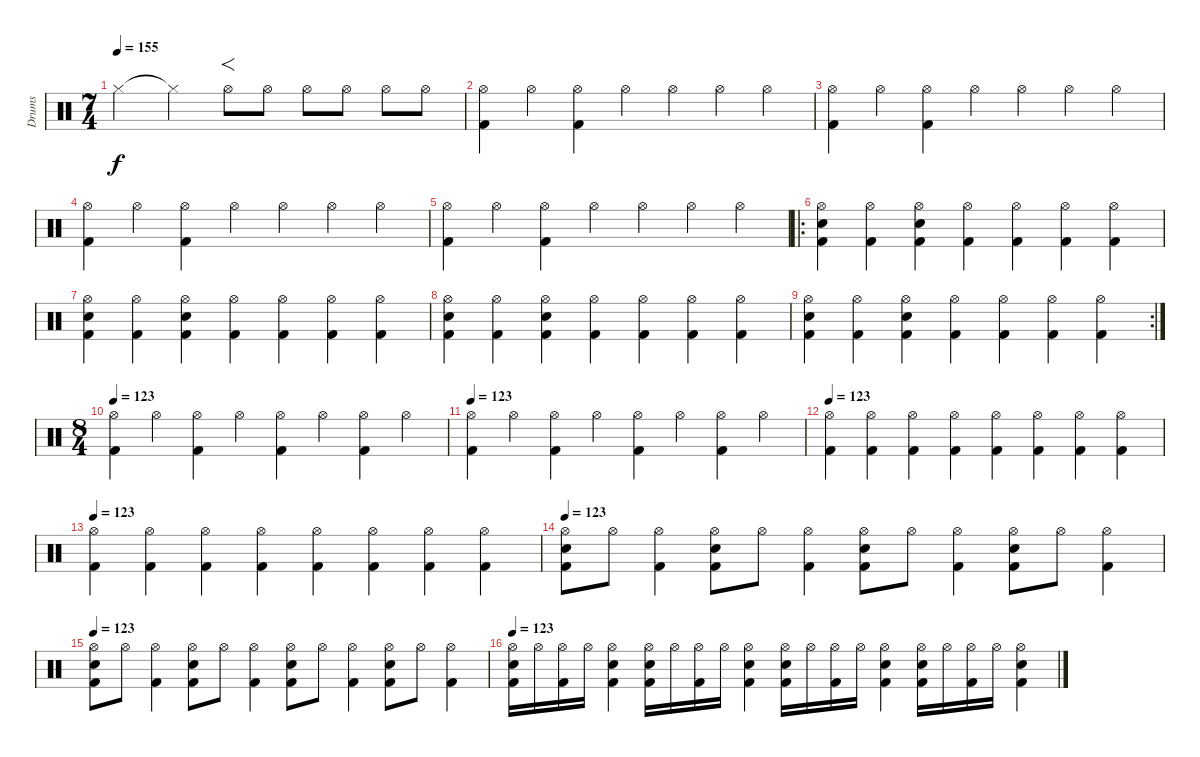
\track ("Drums" "Drums") {instrument percussion}
\staff {score}
\articulation defaults
\ts (7 4)
\tempo 155
\clef neutral
\ks c "Hi-Hat (closed)"{t}.2{dy f} "Hi-Hat (closed)"{t}.2 "Hi-Hat (open)".8{f} "Hi-Hat (open)".8 "Hi-Hat (open)".8 "Hi-Hat (open)".8 "Hi-Hat (open)".8 "Hi-Hat (open)".8
|
("Hi-Hat (open)" "Kick (hit) 2").4 "Hi-Hat (open)".4 ("Hi-Hat (open)" "Kick (hit) 2").4 "Hi-Hat (open)".4 "Hi-Hat (open)".4 "Hi-Hat (open)".4 "Hi-Hat (open)".4 |
("Hi-Hat (open)" "Kick (hit) 2").4 "Hi-Hat (open)".4 ("Hi-Hat (open)" "Kick (hit) 2").4 "Hi-Hat (open)".4 "Hi-Hat (open)".4 "Hi-Hat (open)".4 "Hi-Hat (open)".4 |
("Hi-Hat (open)" "Kick (hit) 2").4 "Hi-Hat (open)".4 ("Hi-Hat (open)" "Kick (hit) 2").4 "Hi-Hat (open)".4 "Hi-Hat (open)".4 "Hi-Hat (open)".4 "Hi-Hat (open)".4 |
("Hi-Hat (open)" "Kick (hit) 2").4 "Hi-Hat (open)".4 ("Hi-Hat (open)" "Kick (hit) 2").4 "Hi-Hat (open)".4 "Hi-Hat (open)".4 "Hi-Hat (open)".4 "Hi-Hat (open)".4 |
\ro
("Hi-Hat (open)" "Electric Snare (hit)" "Kick (hit) 2").4 ("Hi-Hat (open)" "Kick (hit) 2").4 ("Hi-Hat (open)" "Electric Snare (hit)" "Kick (hit) 2").4 ("Hi-Hat (open)" "Kick (hit) 2").4 ("Hi-Hat (open)" "Kick (hit) 2").4 ("Hi-Hat (open)" "Kick (hit) 2").4 ("Hi-Hat (open)" "Kick (hit) 2").4 |
("Hi-Hat (open)" "Electric Snare (hit)" "Kick (hit) 2").4 ("Hi-Hat (open)" "Kick (hit) 2").4 ("Hi-Hat (open)" "Electric Snare (hit)" "Kick (hit) 2").4 ("Hi-Hat (open)" "Kick (hit) 2").4 ("Hi-Hat (open)" "Kick (hit) 2").4 ("Hi-Hat (open)" "Kick (hit) 2").4 ("Hi-Hat (open)" "Kick (hit) 2").4 |
("Hi-Hat (open)" "Electric Snare (hit)" "Kick (hit) 2").4 ("Hi-Hat (open)" "Kick (hit) 2").4 ("Hi-Hat (open)" "Electric Snare (hit)" "Kick (hit) 2").4 ("Hi-Hat (open)" "Kick (hit) 2").4 ("Hi-Hat (open)" "Kick (hit) 2").4 ("Hi-Hat (open)" "Kick (hit) 2").4 ("Hi-Hat (open)" "Kick (hit) 2").4 |
\rc 2
("Hi-Hat (open)" "Electric Snare (hit)" "Kick (hit) 2").4 ("Hi-Hat (open)" "Kick (hit) 2").4 ("Hi-Hat (open)" "Electric Snare (hit)" "Kick (hit) 2").4 ("Hi-Hat (open)" "Kick (hit) 2").4 ("Hi-Hat (open)" "Kick (hit) 2").4 ("Hi-Hat (open)" "Kick (hit) 2").4 ("Hi-Hat (open)" "Kick (hit) 2").4 |
\ts (8 4)
\tempo 123
("Hi-Hat (open)" "Kick (hit) 2").4 "Hi-Hat (open)".4 ("Hi-Hat (open)" "Kick (hit) 2").4 "Hi-Hat (open)".4 ("Hi-Hat (open)" "Kick (hit) 2").4 "Hi-Hat (open)".4 ("Hi-Hat (open)" "Kick (hit) 2").4 "Hi-Hat (open)".4 |
\tempo 123
("Hi-Hat (open)" "Kick (hit) 2").4 "Hi-Hat (open)".4 ("Hi-Hat (open)" "Kick (hit) 2").4 "Hi-Hat (open)".4 ("Hi-Hat (open)" "Kick (hit) 2").4 "Hi-Hat (open)".4 ("Hi-Hat (open)" "Kick (hit) 2").4 "Hi-Hat (open)".4 |
\tempo 123
("Hi-Hat (open)" "Kick (hit) 2").4 ("Hi-Hat (open)" "Kick (hit) 2").4 ("Hi-Hat (open)" "Kick (hit) 2").4 ("Hi-Hat (open)" "Kick (hit) 2").4 ("Hi-Hat (open)" "Kick (hit) 2").4 ("Hi-Hat (open)" "Kick (hit) 2").4 ("Hi-Hat (open)" "Kick (hit) 2").4 ("Hi-Hat (open)" "Kick (hit) 2").4 |
\tempo 123
("Hi-Hat (open)" "Kick (hit) 2").4 ("Hi-Hat (open)" "Kick (hit) 2").4 ("Hi-Hat (open)" "Kick (hit) 2").4 ("Hi-Hat (open)" "Kick (hit) 2").4 ("Hi-Hat (open)" "Kick (hit) 2").4 ("Hi-Hat (open)" "Kick (hit) 2").4 ("Hi-Hat (open)" "Kick (hit) 2").4 ("Hi-Hat (open)" "Kick (hit) 2").4 |
\tempo 123
("Hi-Hat (open)" "Electric Snare (hit)" "Kick (hit) 2").8 "Hi-Hat (open)".8 ("Hi-Hat (open)" "Kick (hit) 2").4 ("Hi-Hat (open)" "Electric Snare (hit)" "Kick (hit) 2").8 "Hi-Hat (open)".8 ("Hi-Hat (open)" "Kick (hit) 2").4 ("Hi-Hat (open)" "Electric Snare (hit)" "Kick (hit) 2").8 "Hi-Hat (open)".8 ("Hi-Hat (open)" "Kick (hit) 2").4 ("Hi-Hat (open)" "Electric Snare (hit)" "Kick (hit) 2").8 "Hi-Hat (open)".8 ("Hi-Hat (open)" "Kick (hit) 2").4 |
\tempo 123
("Hi-Hat (open)" "Electric Snare (hit)" "Kick (hit) 2").8 "Hi-Hat (open)".8 ("Hi-Hat (open)" "Kick (hit) 2").4 ("Hi-Hat (open)" "Electric Snare (hit)" "Kick (hit) 2").8 "Hi-Hat (open)".8 ("Hi-Hat (open)" "Kick (hit) 2").4 ("Hi-Hat (open)" "Electric Snare (hit)" "Kick (hit) 2").8 "Hi-Hat (open)".8 ("Hi-Hat (open)" "Kick (hit) 2").4 ("Hi-Hat (open)" "Electric Snare (hit)" "Kick (hit) 2").8 "Hi-Hat (open)".8 ("Hi-Hat (open)" "Kick (hit) 2").4 |
\tempo 123
("Hi-Hat (open)" "Electric Snare (hit)" "Kick (hit) 2").16 "Hi-Hat (open)".16 ("Hi-Hat (open)" "Kick (hit) 2").16 "Hi-Hat (open)".16 ("Hi-Hat (open)" "Electric Snare (hit)" "Kick (hit) 2").4 ("Hi-Hat (open)" "Electric Snare (hit)" "Kick (hit) 2").16 "Hi-Hat (open)".16 ("Hi-Hat (open)" "Kick (hit) 2").16 "Hi-Hat (open)".16 ("Hi-Hat (open)" "Electric Snare (hit)" "Kick (hit) 2").4 ("Hi-Hat (open)" "Electric Snare (hit)" "Kick (hit) 2").16 "Hi-Hat (open)".16 ("Hi-Hat (open)" "Kick (hit) 2").16 "Hi-Hat (open)".16 ("Hi-Hat (open)" "Electric Snare (hit)" "Kick (hit) 2").4 ("Hi-Hat (open)" "Electric Snare (hit)" "Kick (hit) 2").16 "Hi-Hat (open)".16 ("Hi-Hat (open)" "Kick (hit) 2").16 "Hi-Hat (open)".16 ("Hi-Hat (open)" "Electric Snare (hit)" "Kick (hit) 2").4
